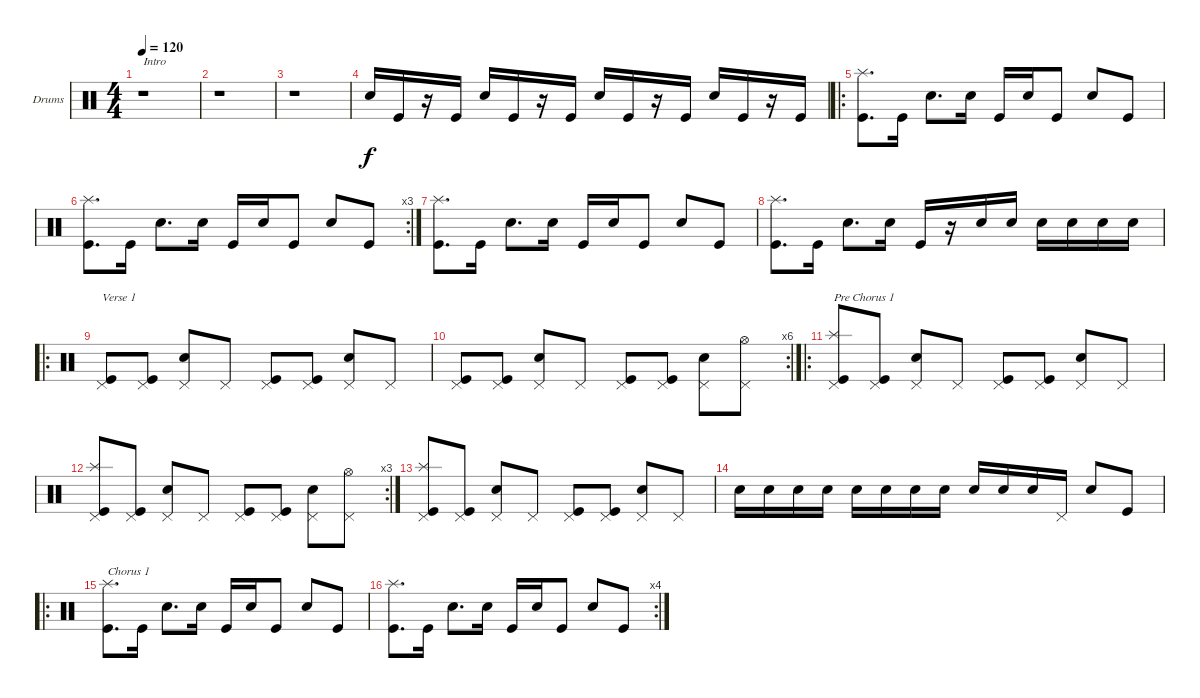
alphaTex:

\bracketExtendMode groupsimilarinstruments
\firstSystemTrackNameOrientation horizontal
\otherSystemsTrackNameOrientation horizontal
\track ("Drumkit" "Drums") {instrument percussion}
\staff {score}
\articulation defaults
\ts (4 4)
\tempo 120
\clef neutral
\ks c
r.1{txt "Intro" dy f} |
r.1 |
r.1 |
"Snare (hit) 2".16 "Kick (hit)".16 r.16 "Kick (hit)".16 "Snare (hit) 2".16 "Kick (hit)".16 r.16 "Kick (hit)".16 "Snare (hit) 2".16 "Kick (hit)".16 r.16 "Kick (hit)".16 "Snare (hit) 2".16 "Kick (hit)".16 r.16 "Kick (hit)".16 |
\ro
("Splash (hit)" "Kick (hit)").8{d} "Kick (hit)".16 "Snare (hit) 2".8{d} "Snare (hit) 2".16 "Kick (hit)".16 "Snare (hit) 2".16 "Kick (hit)".8 "Snare (hit) 2".8 "Kick (hit)".8 |
\rc 3
("Splash (hit)" "Kick (hit)").8{d} "Kick (hit)".16 "Snare (hit) 2".8{d} "Snare (hit) 2".16 "Kick (hit)".16 "Snare (hit) 2".16 "Kick (hit)".8 "Snare (hit) 2".8 "Kick (hit)".8 |
("Splash (hit)" "Kick (hit)").8{d} "Kick (hit)".16 "Snare (hit) 2".8{d} "Snare (hit) 2".16 "Kick (hit)".16 "Snare (hit) 2".16 "Kick (hit)".8 "Snare (hit) 2".8 "Kick (hit)".8 |
("Splash (hit)" "Kick (hit)").8{d} "Kick (hit)".16 "Snare (hit) 2".8{d} "Snare (hit) 2".16 "Kick (hit)".16 r.16 "Snare (hit) 2".16 "Snare (hit) 2".16 "Snare (hit) 2".16 "Snare (hit) 2".16 "Snare (hit) 2".16 "Snare (hit) 2".16 |
\ro
("Pedal Hi-Hat (hit)" "Kick (hit)").8{txt "Verse 1"} ("Pedal Hi-Hat (hit)" "Kick (hit)").8 ("Pedal Hi-Hat (hit)" "Snare (hit) 2").8 "Pedal Hi-Hat (hit)".8 ("Pedal Hi-Hat (hit)" "Kick (hit)").8 ("Pedal Hi-Hat (hit)" "Kick (hit)").8 ("Pedal Hi-Hat (hit)" "Snare (hit) 2").8 "Pedal Hi-Hat (hit)".8 |
\rc 6
("Pedal Hi-Hat (hit)" "Kick (hit)").8 ("Pedal Hi-Hat (hit)" "Kick (hit)").8 ("Pedal Hi-Hat (hit)" "Snare (hit) 2").8 "Pedal Hi-Hat (hit)".8 ("Pedal Hi-Hat (hit)" "Kick (hit)").8 ("Pedal Hi-Hat (hit)" "Kick (hit)").8 ("Pedal Hi-Hat (hit)" "Snare (hit) 2").8 ("Pedal Hi-Hat (hit)" "Hi-Hat (open)").8 |
\ro
("Splash (hit)" "Pedal Hi-Hat (hit)" "Kick (hit)").8{txt "Pre Chorus 1"} ("Pedal Hi-Hat (hit)" "Kick (hit)").8 ("Pedal Hi-Hat (hit)" "Snare (hit) 2").8 "Pedal Hi-Hat (hit)".8 ("Pedal Hi-Hat (hit)" "Kick (hit)").8 ("Pedal Hi-Hat (hit)" "Kick (hit)").8 ("Pedal Hi-Hat (hit)" "Snare (hit) 2").8 "Pedal Hi-Hat (hit)".8 |
\rc 3
("Splash (hit)" "Pedal Hi-Hat (hit)" "Kick (hit)").8 ("Pedal Hi-Hat (hit)" "Kick (hit)").8 ("Pedal Hi-Hat (hit)" "Snare (hit) 2").8 "Pedal Hi-Hat (hit)".8 ("Pedal Hi-Hat (hit)" "Kick (hit)").8 ("Pedal Hi-Hat (hit)" "Kick (hit)").8 ("Pedal Hi-Hat (hit)" "Snare (hit) 2").8 ("Pedal Hi-Hat (hit)" "Hi-Hat (open)").8 |
("Splash (hit)" "Pedal Hi-Hat (hit)" "Kick (hit)").8 ("Pedal Hi-Hat (hit)" "Kick (hit)").8 ("Pedal Hi-Hat (hit)" "Snare (hit) 2").8 "Pedal Hi-Hat (hit)".8 ("Pedal Hi-Hat (hit)" "Kick (hit)").8 ("Pedal Hi-Hat (hit)" "Kick (hit)").8 ("Pedal Hi-Hat (hit)" "Snare (hit) 2").8 "Pedal Hi-Hat (hit)".8 |
"Snare (hit) 2".16 "Snare (hit) 2".16 "Snare (hit) 2".16 "Snare (hit) 2".16 "Snare (hit) 2".16 "Snare (hit) 2".16 "Snare (hit) 2".16 "Snare (hit) 2".16 "Snare (hit) 2".16 "Snare (hit) 2".16 "Snare (hit) 2".16 "Pedal Hi-Hat (hit)".16 "Snare (hit) 2".8 "Kick (hit)".8 |
\ro
("Splash (hit)" "Kick (hit)").8{d txt "Chorus 1"} "Kick (hit)".16 "Snare (hit) 2".8{d} "Snare (hit) 2".16 "Kick (hit)".16 "Snare (hit) 2".16 "Kick (hit)".8 "Snare (hit) 2".8 "Kick (hit)".8 |
\rc 4
("Splash (hit)" "Kick (hit)").8{d} "Kick (hit)".16 "Snare (hit) 2".8{d} "Snare (hit) 2".16 "Kick (hit)".16 "Snare (hit) 2".16 "Kick (hit)".8 "Snare (hit) 2".8 "Kick (hit)".8
